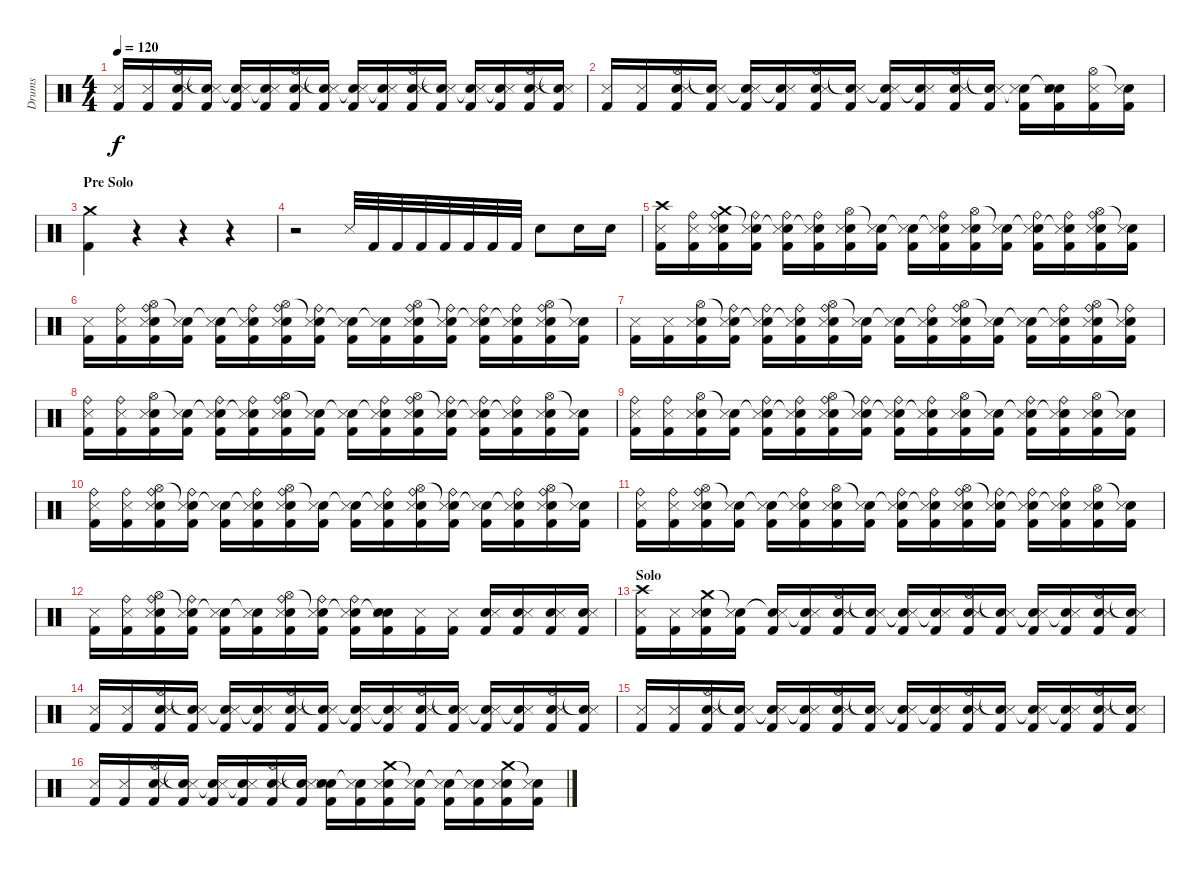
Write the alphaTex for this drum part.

\track ("Drums" "Drums") {instrument percussion}
\staff {score}
\articulation defaults
\ts (4 4)
\tempo 120
\clef neutral
\ks c
("Kick (hit) 2" "Snare (side stick) 3").16{dy f} ("Kick (hit) 2" "Snare (side stick) 3").16 ("Hi-Hat (open)" "Electric Snare (hit)" "Kick (hit) 2" "Snare (side stick) 3").16 ("Snare (hit)"{t} "Kick (hit) 2" "Snare (side stick) 3").16 ("Snare (hit)"{t} "Kick (hit) 2" "Snare (side stick) 3").16 ("Snare (hit)"{t} "Kick (hit) 2" "Snare (side stick) 3").16 ("Hi-Hat (open)" "Electric Snare (hit)" "Kick (hit) 2" "Snare (side stick) 3").16 ("Snare (hit)"{t} "Kick (hit) 2" "Snare (side stick) 3").16 ("Snare (hit)"{t} "Kick (hit) 2" "Snare (side stick) 3").16 ("Snare (hit)"{t} "Kick (hit) 2" "Snare (side stick) 3").16 ("Hi-Hat (open)" "Electric Snare (hit)" "Kick (hit) 2" "Snare (side stick) 3").16 ("Snare (hit)"{t} "Kick (hit) 2" "Snare (side stick) 3").16 ("Snare (hit)"{t} "Kick (hit) 2" "Snare (side stick) 3").16 ("Snare (hit)"{t} "Kick (hit) 2" "Snare (side stick) 3").16 ("Hi-Hat (open)" "Electric Snare (hit)" "Kick (hit) 2" "Snare (side stick) 3").16 ("Snare (hit)"{t} "Kick (hit) 2" "Snare (side stick) 3").16 |
("Kick (hit) 2" "Snare (side stick) 3").16 ("Kick (hit) 2" "Snare (side stick) 3").16 ("Hi-Hat (open)" "Electric Snare (hit)" "Kick (hit) 2" "Snare (side stick) 3").16 ("Snare (hit)"{t} "Kick (hit) 2" "Snare (side stick) 3").16 ("Snare (hit)"{t} "Kick (hit) 2" "Snare (side stick) 3").16 ("Snare (hit)"{t} "Kick (hit) 2" "Snare (side stick) 3").16 ("Hi-Hat (open)" "Electric Snare (hit)" "Kick (hit) 2" "Snare (side stick) 3").16 ("Snare (hit)"{t} "Kick (hit) 2" "Snare (side stick) 3").16 ("Snare (hit)"{t} "Kick (hit) 2" "Snare (side stick) 3").16 ("Snare (hit)"{t} "Kick (hit) 2" "Snare (side stick) 3").16 ("Hi-Hat (open)" "Electric Snare (hit)" "Kick (hit) 2" "Snare (side stick) 3").16 ("Snare (hit)"{t} "Kick (hit) 2" "Snare (side stick) 3").16 ("Snare (hit)"{t} "Kick (hit) 2" "Snare (side stick) 3").16 ("Snare (hit)"{t} "Electric Snare (hit)" "Kick (hit) 2" "Snare (side stick) 3").16 ("Hi-Hat (open)" "Kick (hit) 2" "Snare (side stick) 3").16 ("Snare (hit)"{t} "Kick (hit) 2" "Snare (side stick) 3").16 |
\section ("" "Pre Solo")
("Crash medium (hit)" "Kick (hit) 2").4 r.4 r.4 r.4 |
r.2 "Snare (side stick) 3".32 "Kick (hit) 2".32 "Kick (hit) 2".32 "Kick (hit) 2".32 "Kick (hit) 2".32 "Kick (hit) 2".32 "Kick (hit) 2".32 "Kick (hit) 2".32 "Electric Snare (hit)".8 "Electric Snare (hit)".16 "Electric Snare (hit)".16 |
("Crash high (hit)" "Kick (hit) 2" "Snare (side stick) 3").16 ("Kick (hit) 2" "Snare (side stick) 3" "Ride (bell)").16 ("Crash medium (hit)" "Electric Snare (hit)" "Kick (hit) 2" "Snare (side stick) 3" "Ride (bell)").16 ("Snare (hit)"{t} "Kick (hit) 2" "Snare (side stick) 3" "Ride (bell)").16 ("Snare (hit)"{t} "Kick (hit) 2" "Snare (side stick) 3" "Ride (bell)").16 ("Snare (hit)"{t} "Kick (hit) 2" "Snare (side stick) 3" "Ride (bell)").16 ("Hi-Hat (open)" "Electric Snare (hit)" "Kick (hit) 2" "Snare (side stick) 3").16 ("Snare (hit)"{t} "Kick (hit) 2" "Snare (side stick) 3").16 ("Snare (hit)"{t} "Kick (hit) 2" "Snare (side stick) 3").16 ("Snare (hit)"{t} "Kick (hit) 2" "Snare (side stick) 3" "Ride (bell)").16 ("Hi-Hat (open)" "Electric Snare (hit)" "Kick (hit) 2" "Snare (side stick) 3").16 ("Snare (hit)"{t} "Kick (hit) 2" "Snare (side stick) 3").16 ("Snare (hit)"{t} "Kick (hit) 2" "Snare (side stick) 3" "Ride (bell)").16 ("Snare (hit)"{t} "Kick (hit) 2" "Snare (side stick) 3" "Ride (bell)").16 ("Hi-Hat (open)" "Electric Snare (hit)" "Kick (hit) 2" "Snare (side stick) 3" "Ride (bell)").16 ("Snare (hit)"{t} "Kick (hit) 2" "Snare (side stick) 3").16 |
("Kick (hit) 2" "Snare (side stick) 3").16 ("Kick (hit) 2" "Snare (side stick) 3" "Ride (bell)").16 ("Hi-Hat (open)" "Electric Snare (hit)" "Kick (hit) 2" "Snare (side stick) 3" "Ride (bell)").16 ("Snare (hit)"{t} "Kick (hit) 2" "Snare (side stick) 3").16 ("Snare (hit)"{t} "Kick (hit) 2" "Snare (side stick) 3").16 ("Snare (hit)"{t} "Kick (hit) 2" "Snare (side stick) 3" "Ride (bell)").16 ("Hi-Hat (open)" "Electric Snare (hit)" "Kick (hit) 2" "Snare (side stick) 3" "Ride (bell)").16 ("Snare (hit)"{t} "Kick (hit) 2" "Snare (side stick) 3" "Ride (bell)").16 ("Snare (hit)"{t} "Kick (hit) 2" "Snare (side stick) 3").16 ("Snare (hit)"{t} "Kick (hit) 2" "Snare (side stick) 3").16 ("Hi-Hat (open)" "Electric Snare (hit)" "Kick (hit) 2" "Snare (side stick) 3" "Ride (bell)").16 ("Snare (hit)"{t} "Kick (hit) 2" "Snare (side stick) 3" "Ride (bell)").16 ("Snare (hit)"{t} "Kick (hit) 2" "Snare (side stick) 3" "Ride (bell)").16 ("Snare (hit)"{t} "Kick (hit) 2" "Snare (side stick) 3" "Ride (bell)").16 ("Hi-Hat (open)" "Electric Snare (hit)" "Kick (hit) 2" "Snare (side stick) 3" "Ride (bell)").16 ("Snare (hit)"{t} "Kick (hit) 2" "Snare (side stick) 3").16 |
("Kick (hit) 2" "Snare (side stick) 3").16 ("Kick (hit) 2" "Snare (side stick) 3").16 ("Hi-Hat (open)" "Electric Snare (hit)" "Kick (hit) 2" "Snare (side stick) 3").16 ("Snare (hit)"{t} "Kick (hit) 2" "Snare (side stick) 3" "Ride (bell)").16 ("Snare (hit)"{t} "Kick (hit) 2" "Snare (side stick) 3" "Ride (bell)").16 ("Snare (hit)"{t} "Kick (hit) 2" "Snare (side stick) 3" "Ride (bell)").16 ("Hi-Hat (open)" "Electric Snare (hit)" "Kick (hit) 2" "Snare (side stick) 3" "Ride (bell)").16 ("Snare (hit)"{t} "Kick (hit) 2" "Snare (side stick) 3").16 ("Snare (hit)"{t} "Kick (hit) 2" "Snare (side stick) 3").16 ("Snare (hit)"{t} "Kick (hit) 2" "Snare (side stick) 3" "Ride (bell)").16 ("Hi-Hat (open)" "Electric Snare (hit)" "Kick (hit) 2" "Snare (side stick) 3" "Ride (bell)").16 ("Snare (hit)"{t} "Kick (hit) 2" "Snare (side stick) 3").16 ("Snare (hit)"{t} "Kick (hit) 2" "Snare (side stick) 3").16 ("Snare (hit)"{t} "Kick (hit) 2" "Snare (side stick) 3" "Ride (bell)").16 ("Hi-Hat (open)" "Electric Snare (hit)" "Kick (hit) 2" "Snare (side stick) 3" "Ride (bell)").16 ("Snare (hit)"{t} "Kick (hit) 2" "Snare (side stick) 3" "Ride (bell)").16 |
("Kick (hit) 2" "Snare (side stick) 3" "Ride (bell)").16 ("Kick (hit) 2" "Snare (side stick) 3" "Ride (bell)").16 ("Hi-Hat (open)" "Electric Snare (hit)" "Kick (hit) 2" "Snare (side stick) 3").16 ("Snare (hit)"{t} "Kick (hit) 2" "Snare (side stick) 3").16 ("Snare (hit)"{t} "Kick (hit) 2" "Snare (side stick) 3" "Ride (bell)").16 ("Snare (hit)"{t} "Kick (hit) 2" "Snare (side stick) 3" "Ride (bell)").16 ("Hi-Hat (open)" "Electric Snare (hit)" "Kick (hit) 2" "Snare (side stick) 3" "Ride (bell)").16 ("Snare (hit)"{t} "Kick (hit) 2" "Snare (side stick) 3").16 ("Snare (hit)"{t} "Kick (hit) 2" "Snare (side stick) 3").16 ("Snare (hit)"{t} "Kick (hit) 2" "Snare (side stick) 3" "Ride (bell)").16 ("Hi-Hat (open)" "Electric Snare (hit)" "Kick (hit) 2" "Snare (side stick) 3" "Ride (bell)").16 ("Snare (hit)"{t} "Kick (hit) 2" "Snare (side stick) 3" "Ride (bell)").16 ("Snare (hit)"{t} "Kick (hit) 2" "Snare (side stick) 3" "Ride (bell)").16 ("Snare (hit)"{t} "Kick (hit) 2" "Snare (side stick) 3" "Ride (bell)").16 ("Hi-Hat (open)" "Electric Snare (hit)" "Kick (hit) 2" "Snare (side stick) 3").16 ("Snare (hit)"{t} "Kick (hit) 2" "Snare (side stick) 3").16 |
("Kick (hit) 2" "Snare (side stick) 3" "Ride (bell)").16 ("Kick (hit) 2" "Snare (side stick) 3" "Ride (bell)").16 ("Hi-Hat (open)" "Electric Snare (hit)" "Kick (hit) 2" "Snare (side stick) 3").16 ("Snare (hit)"{t} "Kick (hit) 2" "Snare (side stick) 3").16 ("Snare (hit)"{t} "Kick (hit) 2" "Snare (side stick) 3" "Ride (bell)").16 ("Snare (hit)"{t} "Kick (hit) 2" "Snare (side stick) 3" "Ride (bell)").16 ("Hi-Hat (open)" "Electric Snare (hit)" "Kick (hit) 2" "Snare (side stick) 3" "Ride (bell)").16 ("Snare (hit)"{t} "Kick (hit) 2" "Snare (side stick) 3" "Ride (bell)").16 ("Snare (hit)"{t} "Kick (hit) 2" "Snare (side stick) 3" "Ride (bell)").16 ("Snare (hit)"{t} "Kick (hit) 2" "Snare (side stick) 3" "Ride (bell)").16 ("Hi-Hat (open)" "Electric Snare (hit)" "Kick (hit) 2" "Snare (side stick) 3").16 ("Snare (hit)"{t} "Kick (hit) 2" "Snare (side stick) 3").16 ("Snare (hit)"{t} "Kick (hit) 2" "Snare (side stick) 3" "Ride (bell)").16 ("Snare (hit)"{t} "Kick (hit) 2" "Snare (side stick) 3" "Ride (bell)").16 ("Hi-Hat (open)" "Electric Snare (hit)" "Kick (hit) 2" "Snare (side stick) 3").16 ("Snare (hit)"{t} "Kick (hit) 2" "Snare (side stick) 3").16 |
("Kick (hit) 2" "Snare (side stick) 3" "Ride (bell)").16 ("Kick (hit) 2" "Snare (side stick) 3" "Ride (bell)").16 ("Hi-Hat (open)" "Electric Snare (hit)" "Kick (hit) 2" "Snare (side stick) 3" "Ride (bell)").16 ("Snare (hit)"{t} "Kick (hit) 2" "Snare (side stick) 3" "Ride (bell)").16 ("Snare (hit)"{t} "Kick (hit) 2" "Snare (side stick) 3").16 ("Snare (hit)"{t} "Kick (hit) 2" "Snare (side stick) 3" "Ride (bell)").16 ("Hi-Hat (open)" "Electric Snare (hit)" "Kick (hit) 2" "Snare (side stick) 3" "Ride (bell)").16 ("Snare (hit)"{t} "Kick (hit) 2" "Snare (side stick) 3").16 ("Snare (hit)"{t} "Kick (hit) 2" "Snare (side stick) 3").16 ("Snare (hit)"{t} "Kick (hit) 2" "Snare (side stick) 3" "Ride (bell)").16 ("Hi-Hat (open)" "Electric Snare (hit)" "Kick (hit) 2" "Snare (side stick) 3" "Ride (bell)").16 ("Snare (hit)"{t} "Kick (hit) 2" "Snare (side stick) 3" "Ride (bell)").16 ("Snare (hit)"{t} "Kick (hit) 2" "Snare (side stick) 3").16 ("Snare (hit)"{t} "Kick (hit) 2" "Snare (side stick) 3" "Ride (bell)").16 ("Hi-Hat (open)" "Electric Snare (hit)" "Kick (hit) 2" "Snare (side stick) 3" "Ride (bell)").16 ("Snare (hit)"{t} "Kick (hit) 2" "Snare (side stick) 3").16 |
("Kick (hit) 2" "Snare (side stick) 3" "Ride (bell)").16 ("Kick (hit) 2" "Snare (side stick) 3" "Ride (bell)").16 ("Hi-Hat (open)" "Electric Snare (hit)" "Kick (hit) 2" "Snare (side stick) 3" "Ride (bell)").16 ("Snare (hit)"{t} "Kick (hit) 2" "Snare (side stick) 3").16 ("Snare (hit)"{t} "Kick (hit) 2" "Snare (side stick) 3").16 ("Snare (hit)"{t} "Kick (hit) 2" "Snare (side stick) 3" "Ride (bell)").16 ("Hi-Hat (open)" "Electric Snare (hit)" "Kick (hit) 2" "Snare (side stick) 3").16 ("Snare (hit)"{t} "Kick (hit) 2" "Snare (side stick) 3").16 ("Snare (hit)"{t} "Kick (hit) 2" "Snare (side stick) 3" "Ride (bell)").16 ("Snare (hit)"{t} "Kick (hit) 2" "Snare (side stick) 3" "Ride (bell)").16 ("Hi-Hat (open)" "Electric Snare (hit)" "Kick (hit) 2" "Snare (side stick) 3" "Ride (bell)").16 ("Snare (hit)"{t} "Kick (hit) 2" "Snare (side stick) 3" "Ride (bell)").16 ("Snare (hit)"{t} "Kick (hit) 2" "Snare (side stick) 3" "Ride (bell)").16 ("Snare (hit)"{t} "Kick (hit) 2" "Snare (side stick) 3" "Ride (bell)").16 ("Hi-Hat (open)" "Electric Snare (hit)" "Kick (hit) 2" "Snare (side stick) 3").16 ("Snare (hit)"{t} "Kick (hit) 2" "Snare (side stick) 3").16 |
("Kick (hit) 2" "Snare (side stick) 3").16 ("Kick (hit) 2" "Snare (side stick) 3" "Ride (bell)").16 ("Hi-Hat (open)" "Electric Snare (hit)" "Kick (hit) 2" "Snare (side stick) 3" "Ride (bell)").16 ("Snare (hit)"{t} "Kick (hit) 2" "Snare (side stick) 3" "Ride (bell)").16 ("Snare (hit)"{t} "Kick (hit) 2" "Snare (side stick) 3").16 ("Snare (hit)"{t} "Kick (hit) 2" "Snare (side stick) 3").16 ("Hi-Hat (open)" "Electric Snare (hit)" "Kick (hit) 2" "Snare (side stick) 3" "Ride (bell)").16 ("Snare (hit)"{t} "Kick (hit) 2" "Snare (side stick) 3" "Ride (bell)").16 ("Snare (hit)"{t} "Kick (hit) 2" "Snare (side stick) 3" "Ride (bell)").16 ("Snare (hit)"{t} "Electric Snare (hit)" "Kick (hit) 2" "Snare (side stick) 3").16 ("Kick (hit) 2" "Snare (side stick) 3").16 ("Kick (hit) 2" "Snare (side stick) 3").16 ("Electric Snare (hit)" "Kick (hit) 2" "Snare (side stick) 3").16 ("Electric Snare (hit)" "Kick (hit) 2" "Snare (side stick) 3").16 ("Electric Snare (hit)" "Kick (hit) 2" "Snare (side stick) 3").16 ("Electric Snare (hit)" "Kick (hit) 2" "Snare (side stick) 3").16 |
\section ("" "Solo")
("Crash high (hit)" "Kick (hit) 2" "Snare (side stick) 3").16 ("Kick (hit) 2" "Snare (side stick) 3").16 ("Crash medium (hit)" "Electric Snare (hit)" "Kick (hit) 2" "Snare (side stick) 3").16 ("Snare (hit)"{t} "Kick (hit) 2" "Snare (side stick) 3").16 ("Snare (hit)"{t} "Kick (hit) 2" "Snare (side stick) 3").16 ("Snare (hit)"{t} "Kick (hit) 2" "Snare (side stick) 3").16 ("Hi-Hat (open)" "Electric Snare (hit)" "Kick (hit) 2" "Snare (side stick) 3").16 ("Snare (hit)"{t} "Kick (hit) 2" "Snare (side stick) 3").16 ("Snare (hit)"{t} "Kick (hit) 2" "Snare (side stick) 3").16 ("Snare (hit)"{t} "Kick (hit) 2" "Snare (side stick) 3").16 ("Hi-Hat (open)" "Electric Snare (hit)" "Kick (hit) 2" "Snare (side stick) 3").16 ("Snare (hit)"{t} "Kick (hit) 2" "Snare (side stick) 3").16 ("Snare (hit)"{t} "Kick (hit) 2" "Snare (side stick) 3").16 ("Snare (hit)"{t} "Kick (hit) 2" "Snare (side stick) 3").16 ("Hi-Hat (open)" "Electric Snare (hit)" "Kick (hit) 2" "Snare (side stick) 3").16 ("Snare (hit)"{t} "Kick (hit) 2" "Snare (side stick) 3").16 |
("Kick (hit) 2" "Snare (side stick) 3").16 ("Kick (hit) 2" "Snare (side stick) 3").16 ("Hi-Hat (open)" "Electric Snare (hit)" "Kick (hit) 2" "Snare (side stick) 3").16 ("Snare (hit)"{t} "Kick (hit) 2" "Snare (side stick) 3").16 ("Snare (hit)"{t} "Kick (hit) 2" "Snare (side stick) 3").16 ("Snare (hit)"{t} "Kick (hit) 2" "Snare (side stick) 3").16 ("Hi-Hat (open)" "Electric Snare (hit)" "Kick (hit) 2" "Snare (side stick) 3").16 ("Snare (hit)"{t} "Kick (hit) 2" "Snare (side stick) 3").16 ("Snare (hit)"{t} "Kick (hit) 2" "Snare (side stick) 3").16 ("Snare (hit)"{t} "Kick (hit) 2" "Snare (side stick) 3").16 ("Hi-Hat (open)" "Electric Snare (hit)" "Kick (hit) 2" "Snare (side stick) 3").16 ("Snare (hit)"{t} "Kick (hit) 2" "Snare (side stick) 3").16 ("Snare (hit)"{t} "Kick (hit) 2" "Snare (side stick) 3").16 ("Snare (hit)"{t} "Kick (hit) 2" "Snare (side stick) 3").16 ("Hi-Hat (open)" "Electric Snare (hit)" "Kick (hit) 2" "Snare (side stick) 3").16 ("Snare (hit)"{t} "Kick (hit) 2" "Snare (side stick) 3").16 |
("Kick (hit) 2" "Snare (side stick) 3").16 ("Kick (hit) 2" "Snare (side stick) 3").16 ("Hi-Hat (open)" "Electric Snare (hit)" "Kick (hit) 2" "Snare (side stick) 3").16 ("Snare (hit)"{t} "Kick (hit) 2" "Snare (side stick) 3").16 ("Snare (hit)"{t} "Kick (hit) 2" "Snare (side stick) 3").16 ("Snare (hit)"{t} "Kick (hit) 2" "Snare (side stick) 3").16 ("Hi-Hat (open)" "Electric Snare (hit)" "Kick (hit) 2" "Snare (side stick) 3").16 ("Snare (hit)"{t} "Kick (hit) 2" "Snare (side stick) 3").16 ("Snare (hit)"{t} "Kick (hit) 2" "Snare (side stick) 3").16 ("Snare (hit)"{t} "Kick (hit) 2" "Snare (side stick) 3").16 ("Hi-Hat (open)" "Electric Snare (hit)" "Kick (hit) 2" "Snare (side stick) 3").16 ("Snare (hit)"{t} "Kick (hit) 2" "Snare (side stick) 3").16 ("Snare (hit)"{t} "Kick (hit) 2" "Snare (side stick) 3").16 ("Snare (hit)"{t} "Kick (hit) 2" "Snare (side stick) 3").16 ("Hi-Hat (open)" "Electric Snare (hit)" "Kick (hit) 2" "Snare (side stick) 3").16 ("Snare (hit)"{t} "Kick (hit) 2" "Snare (side stick) 3").16 |
("Kick (hit) 2" "Snare (side stick) 3").16 ("Kick (hit) 2" "Snare (side stick) 3").16 ("Hi-Hat (open)" "Electric Snare (hit)" "Kick (hit) 2" "Snare (side stick) 3").16 ("Snare (hit)"{t} "Kick (hit) 2" "Snare (side stick) 3").16 ("Snare (hit)"{t} "Kick (hit) 2" "Snare (side stick) 3").16 ("Snare (hit)"{t} "Kick (hit) 2" "Snare (side stick) 3").16 ("Hi-Hat (open)" "Electric Snare (hit)" "Kick (hit) 2" "Snare (side stick) 3").16 ("Snare (hit)"{t} "Kick (hit) 2" "Snare (side stick) 3").16 ("Snare (hit)"{t} "Electric Snare (hit)" "Kick (hit) 2" "Snare (side stick) 3").16 ("Snare (hit)"{t} "Kick (hit) 2" "Snare (side stick) 3").16 ("Crash medium (hit)" "Electric Snare (hit)" "Kick (hit) 2" "Snare (side stick) 3").16 ("Snare (hit)"{t} "Kick (hit) 2" "Snare (side stick) 3").16 ("Snare (hit)"{t} "Kick (hit) 2" "Snare (side stick) 3").16 ("Snare (hit)"{t} "Kick (hit) 2" "Snare (side stick) 3").16 ("Crash medium (hit)" "Electric Snare (hit)" "Kick (hit) 2" "Snare (side stick) 3").16 ("Snare (hit)"{t} "Kick (hit) 2" "Snare (side stick) 3").16
